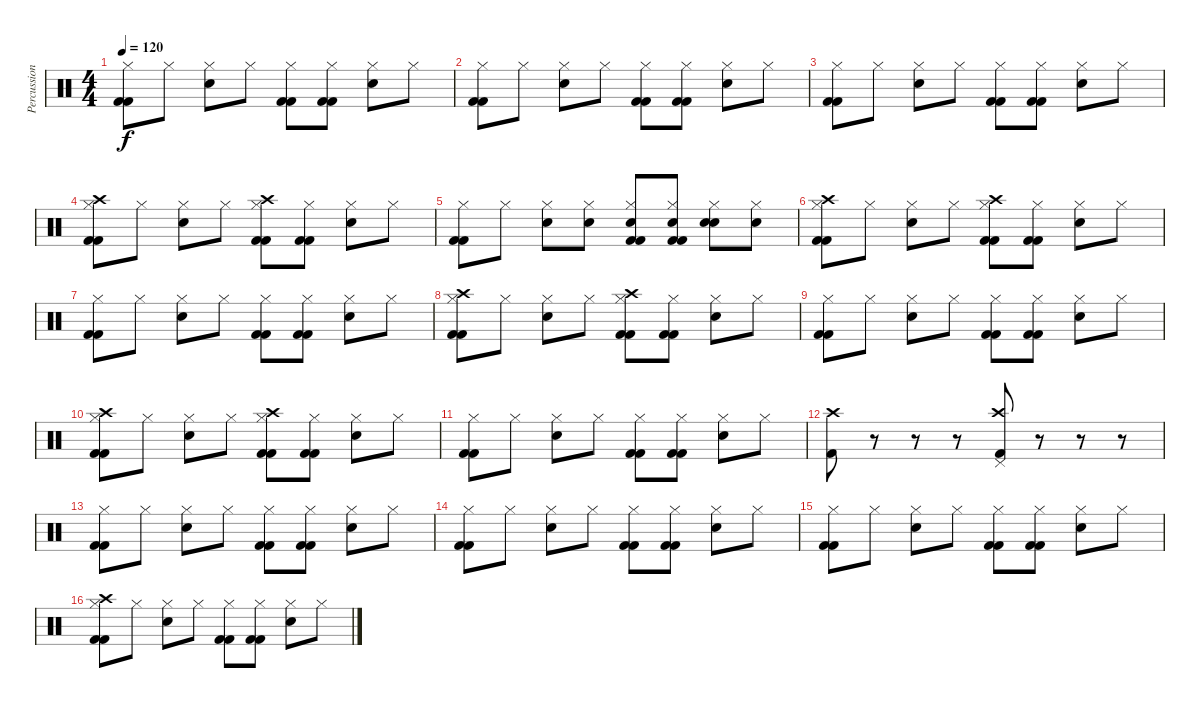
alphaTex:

\track ("Percussion" "Percussion") {instrument percussion}
\staff {score}
\articulation defaults
\ts (4 4)
\tempo 120
\clef neutral
\ks c
("Kick (hit) 2" "Hi-Hat (closed)" "Kick (hit) 2").8{dy f} "Hi-Hat (closed)".8 ("Snare (hit) 2" "Hi-Hat (closed)").8 "Hi-Hat (closed)".8 ("Kick (hit) 2" "Hi-Hat (closed)" "Kick (hit) 2").8 ("Kick (hit) 2" "Hi-Hat (closed)" "Kick (hit) 2").8 ("Snare (hit) 2" "Hi-Hat (closed)").8 "Hi-Hat (closed)".8 |
("Kick (hit) 2" "Hi-Hat (closed)" "Kick (hit) 2").8 "Hi-Hat (closed)".8 ("Snare (hit) 2" "Hi-Hat (closed)").8 "Hi-Hat (closed)".8 ("Kick (hit) 2" "Hi-Hat (closed)" "Kick (hit) 2").8 ("Kick (hit) 2" "Hi-Hat (closed)" "Kick (hit) 2").8 ("Snare (hit) 2" "Hi-Hat (closed)").8 "Hi-Hat (closed)".8 |
("Kick (hit) 2" "Hi-Hat (closed)" "Kick (hit) 2").8 "Hi-Hat (closed)".8 ("Snare (hit) 2" "Hi-Hat (closed)").8 "Hi-Hat (closed)".8 ("Kick (hit) 2" "Hi-Hat (closed)" "Kick (hit) 2").8 ("Kick (hit) 2" "Hi-Hat (closed)" "Kick (hit) 2").8 ("Snare (hit) 2" "Hi-Hat (closed)").8 "Hi-Hat (closed)".8 |
("Kick (hit) 2" "Hi-Hat (closed)" "Kick (hit) 2" "Crash high (hit)").8 "Hi-Hat (closed)".8 ("Snare (hit) 2" "Hi-Hat (closed)").8 "Hi-Hat (closed)".8 ("Kick (hit) 2" "Hi-Hat (closed)" "Kick (hit) 2" "Crash high (hit)").8 ("Kick (hit) 2" "Hi-Hat (closed)" "Kick (hit) 2").8 ("Snare (hit) 2" "Hi-Hat (closed)").8 "Hi-Hat (closed)".8 |
("Kick (hit) 2" "Hi-Hat (closed)" "Kick (hit) 2").8 "Hi-Hat (closed)".8 ("Snare (hit) 2" "Hi-Hat (closed)").8 ("Hi-Hat (closed)" "Snare (hit) 2").8 ("Kick (hit) 2" "Hi-Hat (closed)" "Kick (hit) 2" "Snare (hit) 2").8 ("Kick (hit) 2" "Hi-Hat (closed)" "Kick (hit) 2" "Snare (hit) 2").8 ("Snare (hit) 2" "Hi-Hat (closed)" "Snare (hit) 2").8 ("Hi-Hat (closed)" "Snare (hit) 2").8 |
("Kick (hit) 2" "Hi-Hat (closed)" "Kick (hit) 2" "Crash high (hit)").8 "Hi-Hat (closed)".8 ("Snare (hit) 2" "Hi-Hat (closed)").8 "Hi-Hat (closed)".8 ("Kick (hit) 2" "Hi-Hat (closed)" "Kick (hit) 2" "Crash high (hit)").8 ("Kick (hit) 2" "Hi-Hat (closed)" "Kick (hit) 2").8 ("Snare (hit) 2" "Hi-Hat (closed)").8 "Hi-Hat (closed)".8 |
("Kick (hit) 2" "Hi-Hat (closed)" "Kick (hit) 2").8 "Hi-Hat (closed)".8 ("Snare (hit) 2" "Hi-Hat (closed)").8 "Hi-Hat (closed)".8 ("Kick (hit) 2" "Hi-Hat (closed)" "Kick (hit) 2").8 ("Kick (hit) 2" "Hi-Hat (closed)" "Kick (hit) 2").8 ("Snare (hit) 2" "Hi-Hat (closed)").8 "Hi-Hat (closed)".8 |
("Kick (hit) 2" "Hi-Hat (closed)" "Kick (hit) 2" "Crash high (hit)").8 "Hi-Hat (closed)".8 ("Snare (hit) 2" "Hi-Hat (closed)").8 "Hi-Hat (closed)".8 ("Kick (hit) 2" "Hi-Hat (closed)" "Kick (hit) 2" "Crash high (hit)").8 ("Kick (hit) 2" "Hi-Hat (closed)" "Kick (hit) 2").8 ("Snare (hit) 2" "Hi-Hat (closed)").8 "Hi-Hat (closed)".8 |
("Kick (hit) 2" "Hi-Hat (closed)" "Kick (hit) 2").8 "Hi-Hat (closed)".8 ("Snare (hit) 2" "Hi-Hat (closed)").8 "Hi-Hat (closed)".8 ("Kick (hit) 2" "Hi-Hat (closed)" "Kick (hit) 2").8 ("Kick (hit) 2" "Hi-Hat (closed)" "Kick (hit) 2").8 ("Snare (hit) 2" "Hi-Hat (closed)").8 "Hi-Hat (closed)".8 |
("Kick (hit) 2" "Hi-Hat (closed)" "Kick (hit) 2" "Crash high (hit)").8 "Hi-Hat (closed)".8 ("Snare (hit) 2" "Hi-Hat (closed)").8 "Hi-Hat (closed)".8 ("Kick (hit) 2" "Hi-Hat (closed)" "Kick (hit) 2" "Crash high (hit)").8 ("Kick (hit) 2" "Hi-Hat (closed)" "Kick (hit) 2").8 ("Snare (hit) 2" "Hi-Hat (closed)").8 "Hi-Hat (closed)".8 |
("Kick (hit) 2" "Hi-Hat (closed)" "Kick (hit) 2").8 "Hi-Hat (closed)".8 ("Snare (hit) 2" "Hi-Hat (closed)").8 "Hi-Hat (closed)".8 ("Kick (hit) 2" "Hi-Hat (closed)" "Kick (hit) 2").8 ("Kick (hit) 2" "Hi-Hat (closed)" "Kick (hit) 2").8 ("Snare (hit) 2" "Hi-Hat (closed)").8 "Hi-Hat (closed)".8 |
("Crash high (hit)" "Kick (hit) 2").8 r.8 r.8 r.8 ("Crash high (hit)" "Pedal Hi-Hat (hit)" "Kick (hit) 2").8 r.8 r.8 r.8 |
("Kick (hit) 2" "Hi-Hat (closed)" "Kick (hit) 2").8 "Hi-Hat (closed)".8 ("Snare (hit) 2" "Hi-Hat (closed)").8 "Hi-Hat (closed)".8 ("Kick (hit) 2" "Hi-Hat (closed)" "Kick (hit) 2").8 ("Kick (hit) 2" "Hi-Hat (closed)" "Kick (hit) 2").8 ("Snare (hit) 2" "Hi-Hat (closed)").8 "Hi-Hat (closed)".8 |
("Kick (hit) 2" "Hi-Hat (closed)" "Kick (hit) 2").8 "Hi-Hat (closed)".8 ("Snare (hit) 2" "Hi-Hat (closed)").8 "Hi-Hat (closed)".8 ("Kick (hit) 2" "Hi-Hat (closed)" "Kick (hit) 2").8 ("Kick (hit) 2" "Hi-Hat (closed)" "Kick (hit) 2").8 ("Snare (hit) 2" "Hi-Hat (closed)").8 "Hi-Hat (closed)".8 |
("Kick (hit) 2" "Hi-Hat (closed)" "Kick (hit) 2").8 "Hi-Hat (closed)".8 ("Snare (hit) 2" "Hi-Hat (closed)").8 "Hi-Hat (closed)".8 ("Kick (hit) 2" "Hi-Hat (closed)" "Kick (hit) 2").8 ("Kick (hit) 2" "Hi-Hat (closed)" "Kick (hit) 2").8 ("Snare (hit) 2" "Hi-Hat (closed)").8 "Hi-Hat (closed)".8 |
("Kick (hit) 2" "Hi-Hat (closed)" "Kick (hit) 2" "Crash high (hit)").8 "Hi-Hat (closed)".8 ("Snare (hit) 2" "Hi-Hat (closed)").8 "Hi-Hat (closed)".8 ("Kick (hit) 2" "Hi-Hat (closed)" "Kick (hit) 2").8 ("Kick (hit) 2" "Hi-Hat (closed)" "Kick (hit) 2").8 ("Snare (hit) 2" "Hi-Hat (closed)").8 "Hi-Hat (closed)".8
